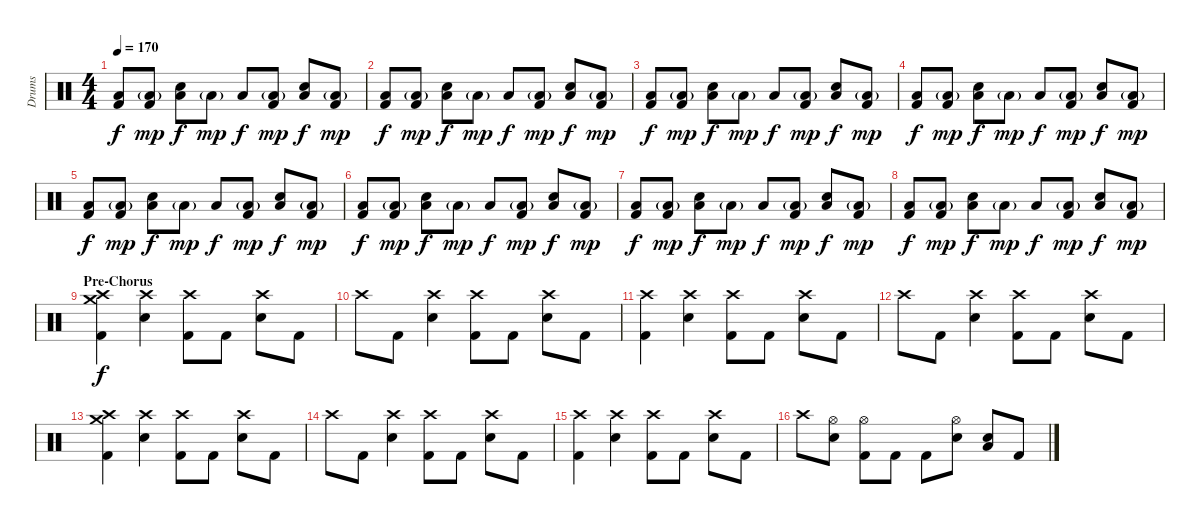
\track ("Drums" "Drums") {instrument percussion}
\staff {score}
\articulation defaults
\ts (4 4)
\tempo 170
\clef neutral
\ks c
("Low Floor Tom (hit)" "Kick (hit) 2").8{dy f} ("Low Floor Tom (hit)"{g} "Kick (hit) 2").8{dy mp} ("Low Floor Tom (hit)" "Snare (hit) 2").8{dy f} "Low Floor Tom (hit)"{g}.8{dy mp} "Low Floor Tom (hit)".8{dy f} ("Low Floor Tom (hit)"{g} "Kick (hit) 2").8{dy mp} ("Low Floor Tom (hit)" "Snare (hit) 2").8{dy f} ("Low Floor Tom (hit)"{g} "Kick (hit) 2").8{dy mp} |
("Low Floor Tom (hit)" "Kick (hit) 2").8{dy f} ("Low Floor Tom (hit)"{g} "Kick (hit) 2").8{dy mp} ("Low Floor Tom (hit)" "Snare (hit) 2").8{dy f} "Low Floor Tom (hit)"{g}.8{dy mp} "Low Floor Tom (hit)".8{dy f} ("Low Floor Tom (hit)"{g} "Kick (hit) 2").8{dy mp} ("Low Floor Tom (hit)" "Snare (hit) 2").8{dy f} ("Low Floor Tom (hit)"{g} "Kick (hit) 2").8{dy mp} |
("Low Floor Tom (hit)" "Kick (hit) 2").8{dy f} ("Low Floor Tom (hit)"{g} "Kick (hit) 2").8{dy mp} ("Low Floor Tom (hit)" "Snare (hit) 2").8{dy f} "Low Floor Tom (hit)"{g}.8{dy mp} "Low Floor Tom (hit)".8{dy f} ("Low Floor Tom (hit)"{g} "Kick (hit) 2").8{dy mp} ("Low Floor Tom (hit)" "Snare (hit) 2").8{dy f} ("Low Floor Tom (hit)"{g} "Kick (hit) 2").8{dy mp} |
("Low Floor Tom (hit)" "Kick (hit) 2").8{dy f} ("Low Floor Tom (hit)"{g} "Kick (hit) 2").8{dy mp} ("Low Floor Tom (hit)" "Snare (hit) 2").8{dy f} "Low Floor Tom (hit)"{g}.8{dy mp} "Low Floor Tom (hit)".8{dy f} ("Low Floor Tom (hit)"{g} "Kick (hit) 2").8{dy mp} ("Low Floor Tom (hit)" "Snare (hit) 2").8{dy f} ("Low Floor Tom (hit)"{g} "Kick (hit) 2").8{dy mp} |
("Low Floor Tom (hit)" "Kick (hit) 2").8{dy f} ("Low Floor Tom (hit)"{g} "Kick (hit) 2").8{dy mp} ("Low Floor Tom (hit)" "Snare (hit) 2").8{dy f} "Low Floor Tom (hit)"{g}.8{dy mp} "Low Floor Tom (hit)".8{dy f} ("Low Floor Tom (hit)"{g} "Kick (hit) 2").8{dy mp} ("Low Floor Tom (hit)" "Snare (hit) 2").8{dy f} ("Low Floor Tom (hit)"{g} "Kick (hit) 2").8{dy mp} |
("Low Floor Tom (hit)" "Kick (hit) 2").8{dy f} ("Low Floor Tom (hit)"{g} "Kick (hit) 2").8{dy mp} ("Low Floor Tom (hit)" "Snare (hit) 2").8{dy f} "Low Floor Tom (hit)"{g}.8{dy mp} "Low Floor Tom (hit)".8{dy f} ("Low Floor Tom (hit)"{g} "Kick (hit) 2").8{dy mp} ("Low Floor Tom (hit)" "Snare (hit) 2").8{dy f} ("Low Floor Tom (hit)"{g} "Kick (hit) 2").8{dy mp} |
("Low Floor Tom (hit)" "Kick (hit) 2").8{dy f} ("Low Floor Tom (hit)"{g} "Kick (hit) 2").8{dy mp} ("Low Floor Tom (hit)" "Snare (hit) 2").8{dy f} "Low Floor Tom (hit)"{g}.8{dy mp} "Low Floor Tom (hit)".8{dy f} ("Low Floor Tom (hit)"{g} "Kick (hit) 2").8{dy mp} ("Low Floor Tom (hit)" "Snare (hit) 2").8{dy f} ("Low Floor Tom (hit)"{g} "Kick (hit) 2").8{dy mp} |
("Low Floor Tom (hit)" "Kick (hit) 2").8{dy f} ("Low Floor Tom (hit)"{g} "Kick (hit) 2").8{dy mp} ("Low Floor Tom (hit)" "Snare (hit) 2").8{dy f} "Low Floor Tom (hit)"{g}.8{dy mp} "Low Floor Tom (hit)".8{dy f} ("Low Floor Tom (hit)"{g} "Kick (hit) 2").8{dy mp} ("Low Floor Tom (hit)" "Snare (hit) 2").8{dy f} ("Low Floor Tom (hit)"{g} "Kick (hit) 2").8{dy mp} |
\section ("" "Pre-Chorus")
("Crash medium (hit)" "Crash high (hit)" "Kick (hit) 2").4{dy f} ("Crash high (hit)" "Snare (hit) 2").4 ("Crash high (hit)" "Kick (hit) 2").8 "Kick (hit) 2".8 ("Crash high (hit)" "Snare (hit) 2").8 "Kick (hit) 2".8 |
"Crash high (hit)".8 "Kick (hit) 2".8 ("Crash high (hit)" "Snare (hit) 2").4 ("Crash high (hit)" "Kick (hit) 2").8 "Kick (hit) 2".8 ("Crash high (hit)" "Snare (hit) 2").8 "Kick (hit) 2".8 |
("Crash high (hit)" "Kick (hit) 2").4 ("Crash high (hit)" "Snare (hit) 2").4 ("Crash high (hit)" "Kick (hit) 2").8 "Kick (hit) 2".8 ("Crash high (hit)" "Snare (hit) 2").8 "Kick (hit) 2".8 |
"Crash high (hit)".8 "Kick (hit) 2".8 ("Crash high (hit)" "Snare (hit) 2").4 ("Crash high (hit)" "Kick (hit) 2").8 "Kick (hit) 2".8 ("Crash high (hit)" "Snare (hit) 2").8 "Kick (hit) 2".8 |
("Crash medium (hit)" "Crash high (hit)" "Kick (hit) 2").4 ("Crash high (hit)" "Snare (hit) 2").4 ("Crash high (hit)" "Kick (hit) 2").8 "Kick (hit) 2".8 ("Crash high (hit)" "Snare (hit) 2").8 "Kick (hit) 2".8 |
"Crash high (hit)".8 "Kick (hit) 2".8 ("Crash high (hit)" "Snare (hit) 2").4 ("Crash high (hit)" "Kick (hit) 2").8 "Kick (hit) 2".8 ("Crash high (hit)" "Snare (hit) 2").8 "Kick (hit) 2".8 |
("Crash high (hit)" "Kick (hit) 2").4 ("Crash high (hit)" "Snare (hit) 2").4 ("Crash high (hit)" "Kick (hit) 2").8 "Kick (hit) 2".8 ("Crash high (hit)" "Snare (hit) 2").8 "Kick (hit) 2".8 |
"Crash high (hit)".8 ("Hi-Hat (open)" "Snare (hit) 2").8 ("Hi-Hat (open)" "Kick (hit) 2").8 "Kick (hit) 2".8 "Kick (hit) 2".8 ("Hi-Hat (open)" "Snare (hit) 2").8 ("Low Floor Tom (hit)" "Snare (hit) 2").8 "Kick (hit) 2".8
